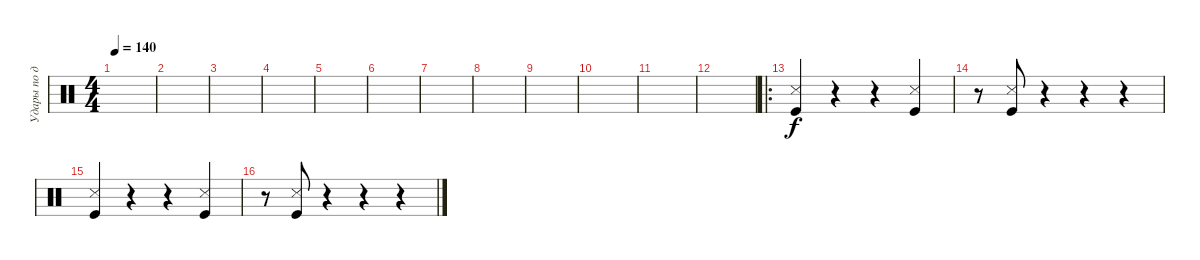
\track ("Удары по деке" "Удары по д") {instrument percussion}
\staff {score}
\articulation defaults
\ts (4 4)
\tempo 140
\clef neutral
\ks c
|
|
|
|
|
|
|
|
|
|
|
|
\ro
("Snare (side stick) 3" "Kick (hit)").4 r.4 r.4 ("Snare (side stick) 3" "Kick (hit)").4 |
r.8 ("Snare (side stick) 3" "Kick (hit)").8 r.4 r.4 r.4 |
("Snare (side stick) 3" "Kick (hit)").4 r.4 r.4 ("Snare (side stick) 3" "Kick (hit)").4 |
r.8 ("Snare (side stick) 3" "Kick (hit)").8 r.4 r.4 r.4
